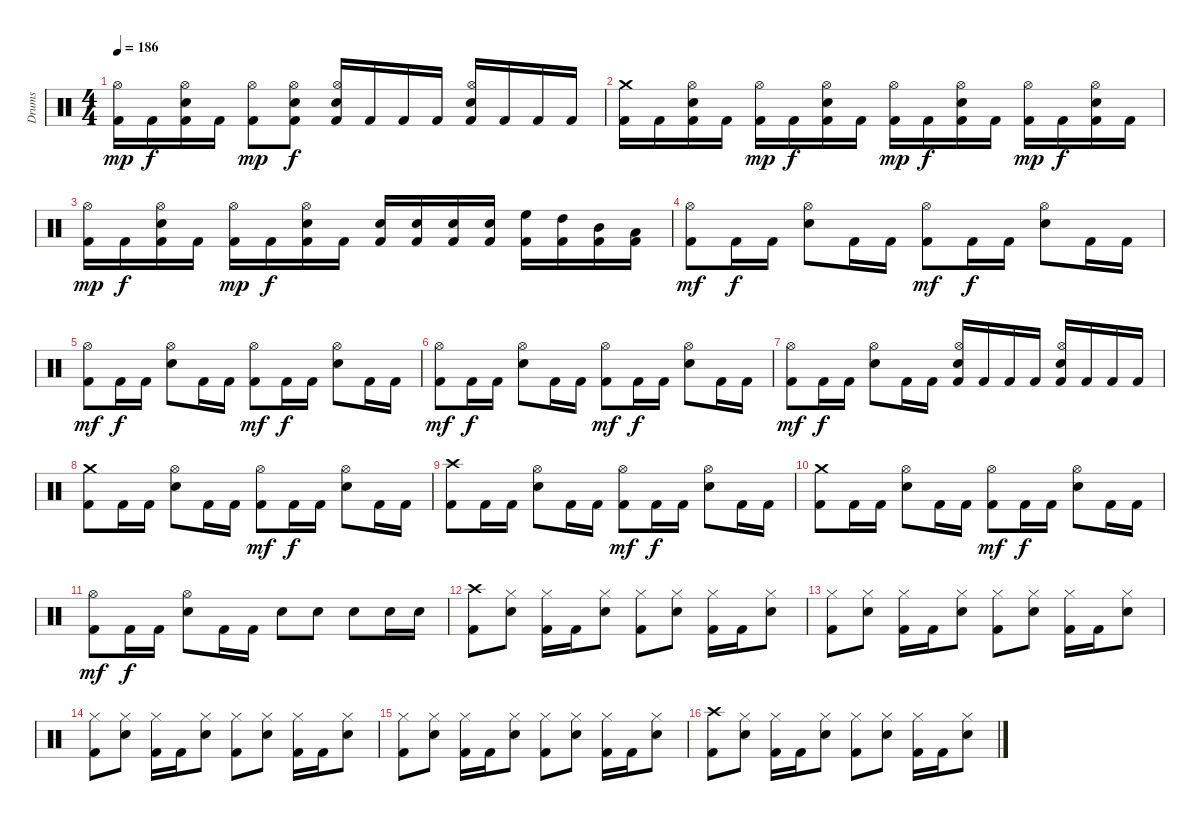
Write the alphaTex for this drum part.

\track ("Drums" "Drums") {instrument percussion}
\staff {score}
\articulation defaults
\ts (4 4)
\tempo 186
\clef neutral
\ks c
("Kick (hit) 2" "Hi-Hat (open)").16{dy mp} "Kick (hit) 2".16{dy f} ("Kick (hit) 2" "Snare (hit) 2" "Hi-Hat (open)").16 "Kick (hit) 2".16 ("Kick (hit) 2" "Hi-Hat (open)").8{dy mp} ("Kick (hit) 2" "Snare (hit) 2" "Hi-Hat (open)").8{dy f} ("Kick (hit) 2" "Snare (hit) 2" "Hi-Hat (open)").16 "Kick (hit) 2".16 "Kick (hit) 2".16 "Kick (hit) 2".16 ("Kick (hit) 2" "Snare (hit) 2" "Hi-Hat (open)").16 "Kick (hit) 2".16 "Kick (hit) 2".16 "Kick (hit) 2".16 |
("Kick (hit) 2" "Crash medium (hit)").16 "Kick (hit) 2".16 ("Kick (hit) 2" "Snare (hit) 2" "Hi-Hat (open)").16 "Kick (hit) 2".16 ("Kick (hit) 2" "Hi-Hat (open)").16{dy mp} "Kick (hit) 2".16{dy f} ("Kick (hit) 2" "Snare (hit) 2" "Hi-Hat (open)").16 "Kick (hit) 2".16 ("Kick (hit) 2" "Hi-Hat (open)").16{dy mp} "Kick (hit) 2".16{dy f} ("Kick (hit) 2" "Snare (hit) 2" "Hi-Hat (open)").16 "Kick (hit) 2".16 ("Kick (hit) 2" "Hi-Hat (open)").16{dy mp} "Kick (hit) 2".16{dy f} ("Kick (hit) 2" "Snare (hit) 2" "Hi-Hat (open)").16 "Kick (hit) 2".16 |
("Kick (hit) 2" "Hi-Hat (open)").16{dy mp} "Kick (hit) 2".16{dy f} ("Kick (hit) 2" "Snare (hit) 2" "Hi-Hat (open)").16 "Kick (hit) 2".16 ("Kick (hit) 2" "Hi-Hat (open)").16{dy mp} "Kick (hit) 2".16{dy f} ("Kick (hit) 2" "Snare (hit) 2" "Hi-Hat (open)").16 "Kick (hit) 2".16 ("Kick (hit) 2" "Snare (hit) 2").16 ("Kick (hit) 2" "Snare (hit) 2").16 ("Kick (hit) 2" "Snare (hit) 2").16 ("Kick (hit) 2" "Snare (hit) 2").16 ("Kick (hit) 2" "High Floor Tom (hit)").16 ("Kick (hit) 2" "High Tom (hit)").16 ("Kick (hit) 2" "Mid Tom (hit)").16 ("Kick (hit) 2" "Low Tom (hit)").16 |
\section ("" "")
("Kick (hit) 2" "Hi-Hat (open)").8{dy mf} "Kick (hit) 2".16{dy f} "Kick (hit) 2".16 ("Snare (hit) 2" "Hi-Hat (open)").8 "Kick (hit) 2".16 "Kick (hit) 2".16 ("Kick (hit) 2" "Hi-Hat (open)").8{dy mf} "Kick (hit) 2".16{dy f} "Kick (hit) 2".16 ("Snare (hit) 2" "Hi-Hat (open)").8 "Kick (hit) 2".16 "Kick (hit) 2".16 |
("Kick (hit) 2" "Hi-Hat (open)").8{dy mf} "Kick (hit) 2".16{dy f} "Kick (hit) 2".16 ("Snare (hit) 2" "Hi-Hat (open)").8 "Kick (hit) 2".16 "Kick (hit) 2".16 ("Kick (hit) 2" "Hi-Hat (open)").8{dy mf} "Kick (hit) 2".16{dy f} "Kick (hit) 2".16 ("Snare (hit) 2" "Hi-Hat (open)").8 "Kick (hit) 2".16 "Kick (hit) 2".16 |
("Kick (hit) 2" "Hi-Hat (open)").8{dy mf} "Kick (hit) 2".16{dy f} "Kick (hit) 2".16 ("Snare (hit) 2" "Hi-Hat (open)").8 "Kick (hit) 2".16 "Kick (hit) 2".16 ("Kick (hit) 2" "Hi-Hat (open)").8{dy mf} "Kick (hit) 2".16{dy f} "Kick (hit) 2".16 ("Snare (hit) 2" "Hi-Hat (open)").8 "Kick (hit) 2".16 "Kick (hit) 2".16 |
("Kick (hit) 2" "Hi-Hat (open)").8{dy mf} "Kick (hit) 2".16{dy f} "Kick (hit) 2".16 ("Snare (hit) 2" "Hi-Hat (open)").8 "Kick (hit) 2".16 "Kick (hit) 2".16 ("Kick (hit) 2" "Snare (hit) 2" "Hi-Hat (open)").16 "Kick (hit) 2".16 "Kick (hit) 2".16 "Kick (hit) 2".16 ("Kick (hit) 2" "Snare (hit) 2" "Hi-Hat (open)").16 "Kick (hit) 2".16 "Kick (hit) 2".16 "Kick (hit) 2".16 |
("Kick (hit) 2" "Crash medium (hit)").8 "Kick (hit) 2".16 "Kick (hit) 2".16 ("Snare (hit) 2" "Hi-Hat (open)").8 "Kick (hit) 2".16 "Kick (hit) 2".16 ("Kick (hit) 2" "Hi-Hat (open)").8{dy mf} "Kick (hit) 2".16{dy f} "Kick (hit) 2".16 ("Snare (hit) 2" "Hi-Hat (open)").8 "Kick (hit) 2".16 "Kick (hit) 2".16 |
("Kick (hit) 2" "Crash high (hit)").8 "Kick (hit) 2".16 "Kick (hit) 2".16 ("Snare (hit) 2" "Hi-Hat (open)").8 "Kick (hit) 2".16 "Kick (hit) 2".16 ("Kick (hit) 2" "Hi-Hat (open)").8{dy mf} "Kick (hit) 2".16{dy f} "Kick (hit) 2".16 ("Snare (hit) 2" "Hi-Hat (open)").8 "Kick (hit) 2".16 "Kick (hit) 2".16 |
("Kick (hit) 2" "Crash medium (hit)").8 "Kick (hit) 2".16 "Kick (hit) 2".16 ("Snare (hit) 2" "Hi-Hat (open)").8 "Kick (hit) 2".16 "Kick (hit) 2".16 ("Kick (hit) 2" "Hi-Hat (open)").8{dy mf} "Kick (hit) 2".16{dy f} "Kick (hit) 2".16 ("Snare (hit) 2" "Hi-Hat (open)").8 "Kick (hit) 2".16 "Kick (hit) 2".16 |
("Kick (hit) 2" "Hi-Hat (open)").8{dy mf} "Kick (hit) 2".16{dy f} "Kick (hit) 2".16 ("Snare (hit) 2" "Hi-Hat (open)").8 "Kick (hit) 2".16 "Kick (hit) 2".16 "Snare (hit) 2".8 "Snare (hit) 2".8 "Snare (hit) 2".8 "Snare (hit) 2".16 "Snare (hit) 2".16 |
\section ("" "")
("Kick (hit) 2" "Crash high (hit)").8 ("Snare (hit) 2" "Hi-Hat (closed)").8 ("Kick (hit) 2" "Hi-Hat (closed)").16 "Kick (hit) 2".16 ("Snare (hit) 2" "Hi-Hat (closed)").8 ("Kick (hit) 2" "Hi-Hat (closed)").8 ("Snare (hit) 2" "Hi-Hat (closed)").8 ("Kick (hit) 2" "Hi-Hat (closed)").16 "Kick (hit) 2".16 ("Snare (hit) 2" "Hi-Hat (closed)").8 |
("Kick (hit) 2" "Hi-Hat (closed)").8 ("Snare (hit) 2" "Hi-Hat (closed)").8 ("Kick (hit) 2" "Hi-Hat (closed)").16 "Kick (hit) 2".16 ("Snare (hit) 2" "Hi-Hat (closed)").8 ("Kick (hit) 2" "Hi-Hat (closed)").8 ("Snare (hit) 2" "Hi-Hat (closed)").8 ("Kick (hit) 2" "Hi-Hat (closed)").16 "Kick (hit) 2".16 ("Snare (hit) 2" "Hi-Hat (closed)").8 |
("Kick (hit) 2" "Hi-Hat (closed)").8 ("Snare (hit) 2" "Hi-Hat (closed)").8 ("Kick (hit) 2" "Hi-Hat (closed)").16 "Kick (hit) 2".16 ("Snare (hit) 2" "Hi-Hat (closed)").8 ("Kick (hit) 2" "Hi-Hat (closed)").8 ("Snare (hit) 2" "Hi-Hat (closed)").8 ("Kick (hit) 2" "Hi-Hat (closed)").16 "Kick (hit) 2".16 ("Snare (hit) 2" "Hi-Hat (closed)").8 |
("Kick (hit) 2" "Hi-Hat (closed)").8 ("Snare (hit) 2" "Hi-Hat (closed)").8 ("Kick (hit) 2" "Hi-Hat (closed)").16 "Kick (hit) 2".16 ("Snare (hit) 2" "Hi-Hat (closed)").8 ("Kick (hit) 2" "Hi-Hat (closed)").8 ("Snare (hit) 2" "Hi-Hat (closed)").8 ("Kick (hit) 2" "Hi-Hat (closed)").16 "Kick (hit) 2".16 ("Snare (hit) 2" "Hi-Hat (closed)").8 |
("Kick (hit) 2" "Crash high (hit)").8 ("Snare (hit) 2" "Hi-Hat (closed)").8 ("Kick (hit) 2" "Hi-Hat (closed)").16 "Kick (hit) 2".16 ("Snare (hit) 2" "Hi-Hat (closed)").8 ("Kick (hit) 2" "Hi-Hat (closed)").8 ("Snare (hit) 2" "Hi-Hat (closed)").8 ("Kick (hit) 2" "Hi-Hat (closed)").16 "Kick (hit) 2".16 ("Snare (hit) 2" "Hi-Hat (closed)").8
